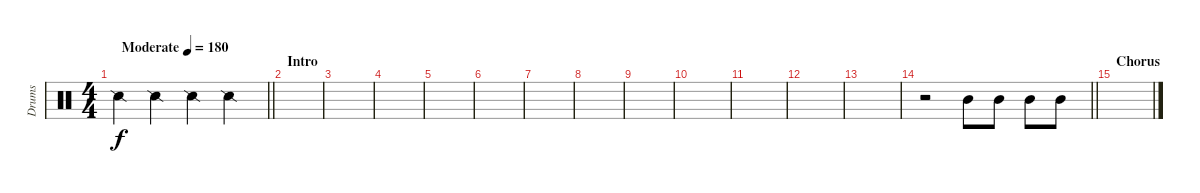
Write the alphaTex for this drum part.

\track ("Drums" "Drums") {instrument percussion}
\staff {score}
\articulation defaults
\ts (4 4)
\tempo (180 "Moderate")
\clef neutral
\barLineRight lightlight
\ks c "Snare (side stick) 2".4{dy f} "Snare (side stick) 2".4 "Snare (side stick) 2".4 "Snare (side stick) 2".4
|
\section ("" "Intro")
|
|
|
|
|
|
|
|
|
|
|
|
\barLineRight lightlight
r.2 "Mid Tom (hit)".8 "Mid Tom (hit)".8 "Mid Tom (hit)".8 "Mid Tom (hit)".8 |
\section ("" "Chorus")
